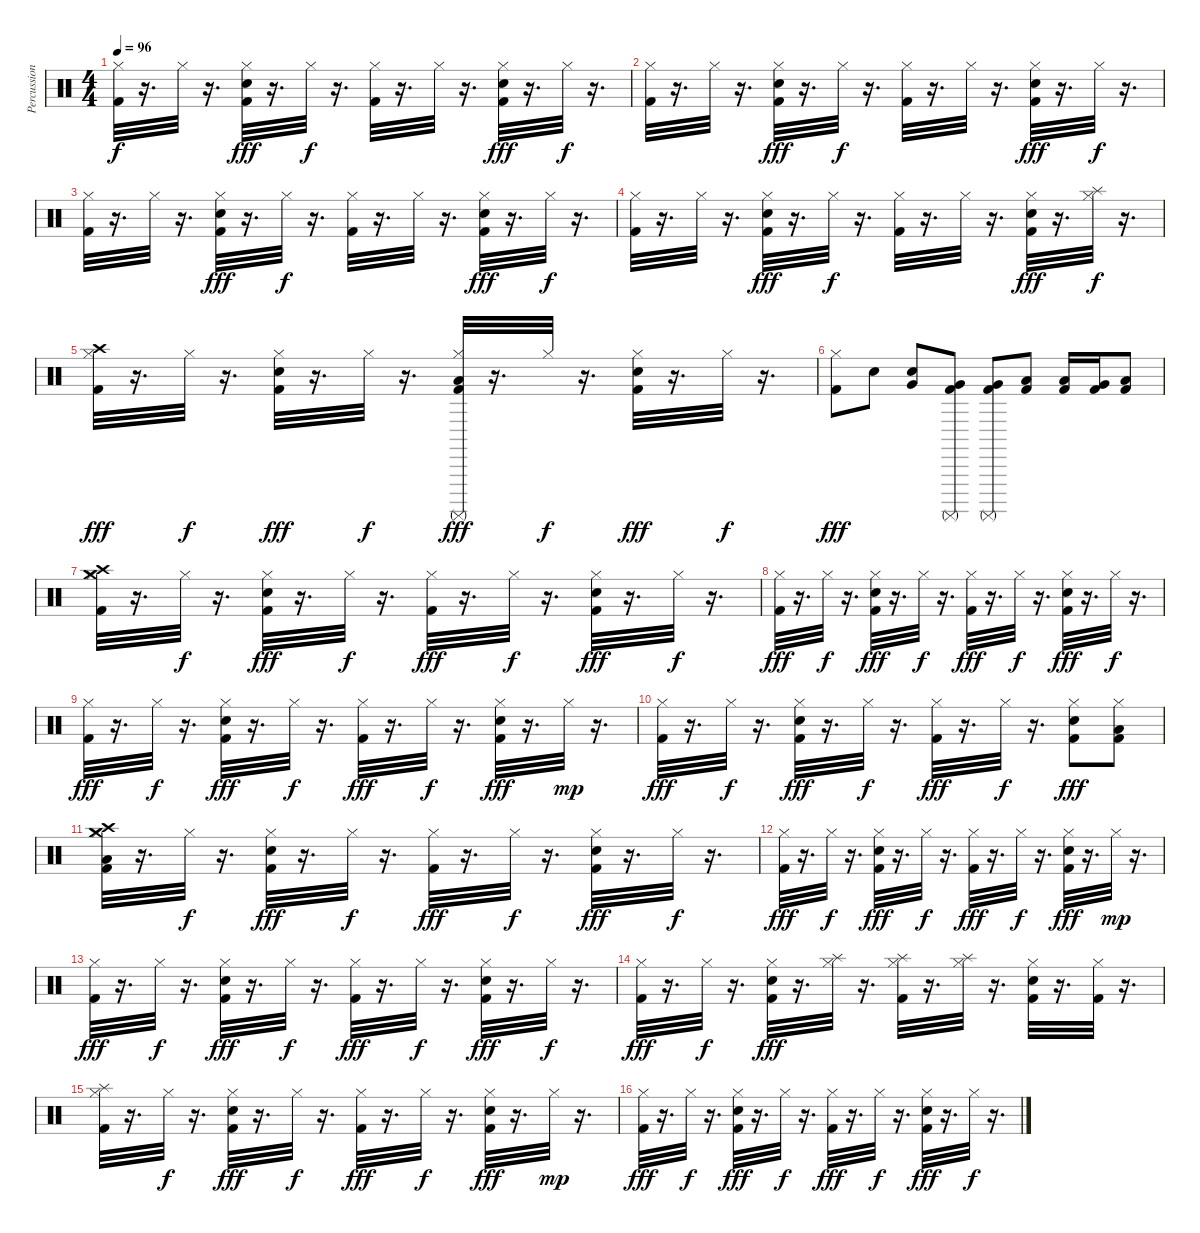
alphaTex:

\track ("Percussion" "Percussion") {instrument percussion}
\staff {score}
\articulation defaults
\ts (4 4)
\tempo 96
\clef neutral
\ks c
("Hi-Hat (closed)" "Kick (hit) 2").32{dy f} r.16{d} "Hi-Hat (closed)".32 r.16{d} ("Hi-Hat (closed)" "Snare (hit) 2" "Kick (hit) 2").32{dy fff} r.16{d} "Hi-Hat (closed)".32{dy f} r.16{d} ("Hi-Hat (closed)" "Kick (hit) 2").32 r.16{d} "Hi-Hat (closed)".32 r.16{d} ("Hi-Hat (closed)" "Snare (hit) 2" "Kick (hit) 2").32{dy fff} r.16{d} "Hi-Hat (closed)".32{dy f} r.16{d} |
("Hi-Hat (closed)" "Kick (hit) 2").32 r.16{d} "Hi-Hat (closed)".32 r.16{d} ("Hi-Hat (closed)" "Snare (hit) 2" "Kick (hit) 2").32{dy fff} r.16{d} "Hi-Hat (closed)".32{dy f} r.16{d} ("Hi-Hat (closed)" "Kick (hit) 2").32 r.16{d} "Hi-Hat (closed)".32 r.16{d} ("Hi-Hat (closed)" "Snare (hit) 2" "Kick (hit) 2").32{dy fff} r.16{d} "Hi-Hat (closed)".32{dy f} r.16{d} |
("Hi-Hat (closed)" "Kick (hit) 2").32 r.16{d} "Hi-Hat (closed)".32 r.16{d} ("Hi-Hat (closed)" "Snare (hit) 2" "Kick (hit) 2").32{dy fff} r.16{d} "Hi-Hat (closed)".32{dy f} r.16{d} ("Hi-Hat (closed)" "Kick (hit) 2").32 r.16{d} "Hi-Hat (closed)".32 r.16{d} ("Hi-Hat (closed)" "Snare (hit) 2" "Kick (hit) 2").32{dy fff} r.16{d} "Hi-Hat (closed)".32{dy f} r.16{d} |
("Hi-Hat (closed)" "Kick (hit) 2").32 r.16{d} "Hi-Hat (closed)".32 r.16{d} ("Hi-Hat (closed)" "Snare (hit) 2" "Kick (hit) 2").32{dy fff} r.16{d} "Hi-Hat (closed)".32{dy f} r.16{d} ("Hi-Hat (closed)" "Kick (hit) 2").32 r.16{d} "Hi-Hat (closed)".32 r.16{d} ("Hi-Hat (closed)" "Snare (hit) 2" "Kick (hit) 2").32{dy fff} r.16{d} ("Hi-Hat (closed)" "Splash (hit)").32{dy f} r.16{d} |
("Hi-Hat (closed)" "Kick (hit) 2" "Crash high (hit)").32{dy fff} r.16{d} "Hi-Hat (closed)".32{dy f} r.16{d} ("Hi-Hat (closed)" "Snare (hit) 2" "Kick (hit) 2").32{dy fff} r.16{d} "Hi-Hat (closed)".32{dy f} r.16{d} ("Hi-Hat (closed)" "Kick (hit) 2" "Low Floor Tom (hit)" "Surdo (mute)").32{dy fff} r.16{d} "Hi-Hat (closed)".32{dy f} r.16{d} ("Hi-Hat (closed)" "Snare (hit) 2" "Kick (hit) 2").32{dy fff} r.16{d} "Hi-Hat (closed)".32{dy f} r.16{d} |
("Hi-Hat (closed)" "Kick (hit) 2").8{dy fff} "Snare (hit) 2".8 ("Snare (hit) 2" "Very Low Tom (hit)").8 ("Kick (hit) 2" "Very Low Tom (hit)" "Surdo (mute)").8 ("Kick (hit) 2" "Very Low Tom (hit)" "Surdo (mute)").8 ("Kick (hit) 2" "Low Floor Tom (hit)").8 ("Kick (hit) 2" "Low Floor Tom (hit)").16 ("Kick (hit) 2" "Very Low Tom (hit)").16 ("Kick (hit) 2" "Low Floor Tom (hit)").8 |
("Crash high (hit)" "Hi-Hat (closed)" "Kick (hit) 2" "Crash medium (hit)").32 r.16{d} "Hi-Hat (closed)".32{dy f} r.16{d} ("Hi-Hat (closed)" "Snare (hit) 2" "Kick (hit) 2").32{dy fff} r.16{d} "Hi-Hat (closed)".32{dy f} r.16{d} ("Hi-Hat (closed)" "Kick (hit) 2").32{dy fff} r.16{d} "Hi-Hat (closed)".32{dy f} r.16{d} ("Hi-Hat (closed)" "Snare (hit) 2" "Kick (hit) 2").32{dy fff} r.16{d} "Hi-Hat (closed)".32{dy f} r.16{d} |
("Hi-Hat (closed)" "Kick (hit) 2").32{dy fff} r.16{d} "Hi-Hat (closed)".32{dy f} r.16{d} ("Hi-Hat (closed)" "Snare (hit) 2" "Kick (hit) 2").32{dy fff} r.16{d} "Hi-Hat (closed)".32{dy f} r.16{d} ("Hi-Hat (closed)" "Kick (hit) 2").32{dy fff} r.16{d} "Hi-Hat (closed)".32{dy f} r.16{d} ("Hi-Hat (closed)" "Snare (hit) 2" "Kick (hit) 2").32{dy fff} r.16{d} "Hi-Hat (closed)".32{dy f} r.16{d} |
("Hi-Hat (closed)" "Kick (hit) 2").32{dy fff} r.16{d} "Hi-Hat (closed)".32{dy f} r.16{d} ("Hi-Hat (closed)" "Snare (hit) 2" "Kick (hit) 2").32{dy fff} r.16{d} "Hi-Hat (closed)".32{dy f} r.16{d} ("Hi-Hat (closed)" "Kick (hit) 2").32{dy fff} r.16{d} "Hi-Hat (closed)".32{dy f} r.16{d} ("Hi-Hat (closed)" "Snare (hit) 2" "Kick (hit) 2").32{dy fff} r.16{d} "Hi-Hat (closed)".32{dy mp} r.16{d} |
("Hi-Hat (closed)" "Kick (hit) 2").32{dy fff} r.16{d} "Hi-Hat (closed)".32{dy f} r.16{d} ("Hi-Hat (closed)" "Snare (hit) 2" "Kick (hit) 2").32{dy fff} r.16{d} "Hi-Hat (closed)".32{dy f} r.16{d} ("Hi-Hat (closed)" "Kick (hit) 2").32{dy fff} r.16{d} "Hi-Hat (closed)".32{dy f} r.16{d} ("Hi-Hat (closed)" "Snare (hit) 2" "Kick (hit) 2").8{dy fff} ("Low Floor Tom (hit)" "Hi-Hat (closed)" "Kick (hit) 2").8 |
("Hi-Hat (closed)" "Kick (hit) 2" "Low Floor Tom (hit)" "Crash high (hit)" "Crash medium (hit)").32 r.16{d} "Hi-Hat (closed)".32{dy f} r.16{d} ("Hi-Hat (closed)" "Snare (hit) 2" "Kick (hit) 2").32{dy fff} r.16{d} "Hi-Hat (closed)".32{dy f} r.16{d} ("Hi-Hat (closed)" "Kick (hit) 2").32{dy fff} r.16{d} "Hi-Hat (closed)".32{dy f} r.16{d} ("Hi-Hat (closed)" "Snare (hit) 2" "Kick (hit) 2").32{dy fff} r.16{d} "Hi-Hat (closed)".32{dy f} r.16{d} |
("Hi-Hat (closed)" "Kick (hit) 2").32{dy fff} r.16{d} "Hi-Hat (closed)".32{dy f} r.16{d} ("Hi-Hat (closed)" "Snare (hit) 2" "Kick (hit) 2").32{dy fff} r.16{d} "Hi-Hat (closed)".32{dy f} r.16{d} ("Hi-Hat (closed)" "Kick (hit) 2").32{dy fff} r.16{d} "Hi-Hat (closed)".32{dy f} r.16{d} ("Hi-Hat (closed)" "Snare (hit) 2" "Kick (hit) 2").32{dy fff} r.16{d} "Hi-Hat (closed)".32{dy mp} r.16{d} |
("Hi-Hat (closed)" "Kick (hit) 2").32{dy fff} r.16{d} "Hi-Hat (closed)".32{dy f} r.16{d} ("Hi-Hat (closed)" "Snare (hit) 2" "Kick (hit) 2").32{dy fff} r.16{d} "Hi-Hat (closed)".32{dy f} r.16{d} ("Hi-Hat (closed)" "Kick (hit) 2").32{dy fff} r.16{d} "Hi-Hat (closed)".32{dy f} r.16{d} ("Hi-Hat (closed)" "Snare (hit) 2" "Kick (hit) 2").32{dy fff} r.16{d} "Hi-Hat (closed)".32{dy f} r.16{d} |
("Hi-Hat (closed)" "Kick (hit) 2").32{dy fff} r.16{d} "Hi-Hat (closed)".32{dy f} r.16{d} ("Hi-Hat (closed)" "Snare (hit) 2" "Kick (hit) 2").32{dy fff} r.16{d} ("Hi-Hat (closed)" "Splash (hit)").32 r.16{d} ("Hi-Hat (closed)" "Kick (hit) 2" "Splash (hit)").32 r.16{d} ("Hi-Hat (closed)" "Splash (hit)").32 r.16{d} ("Hi-Hat (closed)" "Snare (hit) 2" "Kick (hit) 2").32 r.16{d} ("Hi-Hat (closed)" "Kick (hit) 2").32 r.16{d} |
("Hi-Hat (closed)" "Kick (hit) 2" "Splash (hit)").32 r.16{d} "Hi-Hat (closed)".32{dy f} r.16{d} ("Hi-Hat (closed)" "Snare (hit) 2" "Kick (hit) 2").32{dy fff} r.16{d} "Hi-Hat (closed)".32{dy f} r.16{d} ("Hi-Hat (closed)" "Kick (hit) 2").32{dy fff} r.16{d} "Hi-Hat (closed)".32{dy f} r.16{d} ("Hi-Hat (closed)" "Snare (hit) 2" "Kick (hit) 2").32{dy fff} r.16{d} "Hi-Hat (closed)".32{dy mp} r.16{d} |
("Hi-Hat (closed)" "Kick (hit) 2").32{dy fff} r.16{d} "Hi-Hat (closed)".32{dy f} r.16{d} ("Hi-Hat (closed)" "Snare (hit) 2" "Kick (hit) 2").32{dy fff} r.16{d} "Hi-Hat (closed)".32{dy f} r.16{d} ("Hi-Hat (closed)" "Kick (hit) 2").32{dy fff} r.16{d} "Hi-Hat (closed)".32{dy f} r.16{d} ("Hi-Hat (closed)" "Snare (hit) 2" "Kick (hit) 2").32{dy fff} r.16{d} "Hi-Hat (closed)".32{dy f} r.16{d}
